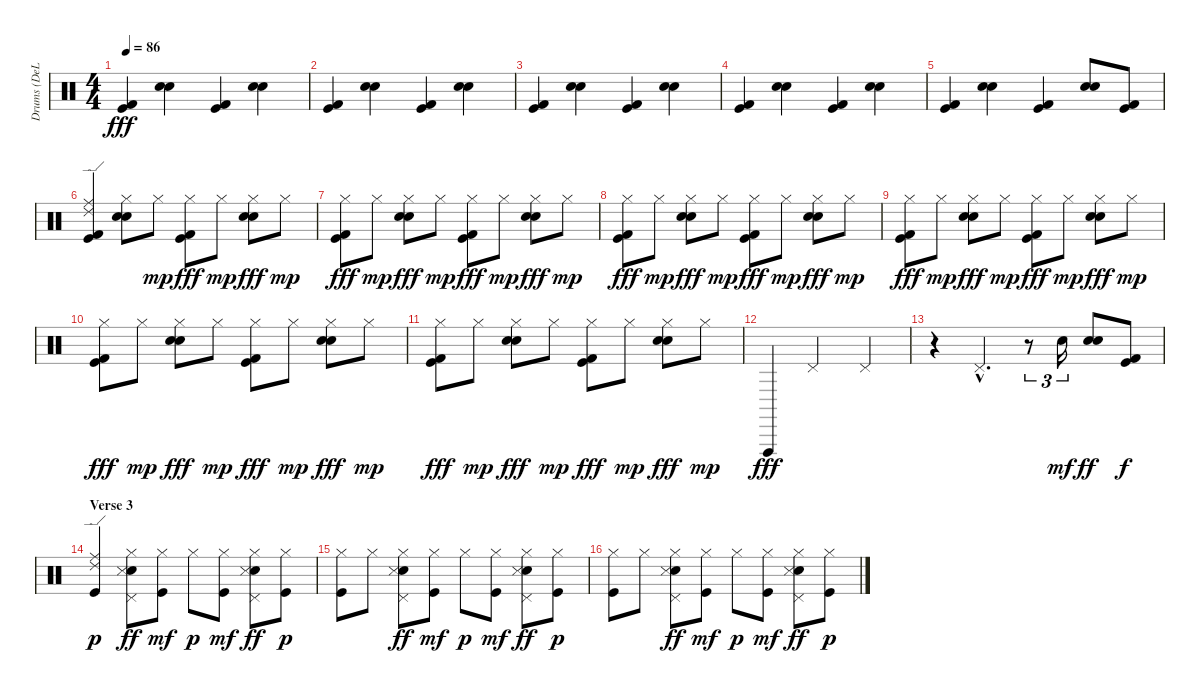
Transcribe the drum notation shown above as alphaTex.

\track ("Drums (DeLorenzo)" "Drums (DeL") {instrument percussion}
\staff {score}
\articulation defaults
\ts (4 4)
\tempo 86
\clef neutral
\ks c
("Kick (hit)" "Kick (hit) 2").4{dy fff} ("Snare (hit) 2" "Electric Snare (hit)").4 ("Kick (hit)" "Kick (hit) 2").4 ("Snare (hit) 2" "Electric Snare (hit)").4 |
("Kick (hit)" "Kick (hit) 2").4 ("Snare (hit) 2" "Electric Snare (hit)").4 ("Kick (hit)" "Kick (hit) 2").4 ("Snare (hit) 2" "Electric Snare (hit)").4 |
("Kick (hit)" "Kick (hit) 2").4 ("Snare (hit) 2" "Electric Snare (hit)").4 ("Kick (hit)" "Kick (hit) 2").4 ("Snare (hit) 2" "Electric Snare (hit)").4 |
("Kick (hit)" "Kick (hit) 2").4 ("Snare (hit) 2" "Electric Snare (hit)").4 ("Kick (hit)" "Kick (hit) 2").4 ("Snare (hit) 2" "Electric Snare (hit)").4 |
("Kick (hit)" "Kick (hit) 2").4 ("Snare (hit) 2" "Electric Snare (hit)").4 ("Kick (hit)" "Kick (hit) 2").4 ("Snare (hit) 2" "Electric Snare (hit)").8{bd 120} ("Kick (hit)" "Kick (hit) 2").8 |
("Ride (middle)" "Ride (edge) 2" "Kick (hit)" "Kick (hit) 2").4 ("Hi-Hat (closed)" "Snare (hit) 2" "Electric Snare (hit)").8 "Hi-Hat (closed)".8{dy mp} ("Hi-Hat (closed)" "Kick (hit)" "Kick (hit) 2").8{dy fff} "Hi-Hat (closed)".8{dy mp} ("Hi-Hat (closed)" "Snare (hit) 2" "Electric Snare (hit)").8{dy fff} "Hi-Hat (closed)".8{dy mp} |
("Hi-Hat (closed)" "Kick (hit)" "Kick (hit) 2").8{dy fff} "Hi-Hat (closed)".8{dy mp} ("Hi-Hat (closed)" "Snare (hit) 2" "Electric Snare (hit)").8{dy fff} "Hi-Hat (closed)".8{dy mp} ("Hi-Hat (closed)" "Kick (hit)" "Kick (hit) 2").8{dy fff} "Hi-Hat (closed)".8{dy mp} ("Hi-Hat (closed)" "Snare (hit) 2" "Electric Snare (hit)").8{dy fff} "Hi-Hat (closed)".8{dy mp} |
("Hi-Hat (closed)" "Kick (hit)" "Kick (hit) 2").8{dy fff} "Hi-Hat (closed)".8{dy mp} ("Hi-Hat (closed)" "Snare (hit) 2" "Electric Snare (hit)").8{dy fff} "Hi-Hat (closed)".8{dy mp} ("Hi-Hat (closed)" "Kick (hit)" "Kick (hit) 2").8{dy fff} "Hi-Hat (closed)".8{dy mp} ("Hi-Hat (closed)" "Snare (hit) 2" "Electric Snare (hit)").8{dy fff} "Hi-Hat (closed)".8{dy mp} |
("Hi-Hat (closed)" "Kick (hit)" "Kick (hit) 2").8{dy fff} "Hi-Hat (closed)".8{dy mp} ("Hi-Hat (closed)" "Snare (hit) 2" "Electric Snare (hit)").8{dy fff} "Hi-Hat (closed)".8{dy mp} ("Hi-Hat (closed)" "Kick (hit)" "Kick (hit) 2").8{dy fff} "Hi-Hat (closed)".8{dy mp} ("Hi-Hat (closed)" "Snare (hit) 2" "Electric Snare (hit)").8{dy fff} "Hi-Hat (closed)".8{dy mp} |
("Hi-Hat (closed)" "Kick (hit)" "Kick (hit) 2").8{dy fff} "Hi-Hat (closed)".8{dy mp} ("Hi-Hat (closed)" "Snare (hit) 2" "Electric Snare (hit)").8{dy fff} "Hi-Hat (closed)".8{dy mp} ("Hi-Hat (closed)" "Kick (hit)" "Kick (hit) 2").8{dy fff} "Hi-Hat (closed)".8{dy mp} ("Hi-Hat (closed)" "Snare (hit) 2" "Electric Snare (hit)").8{dy fff} "Hi-Hat (closed)".8{dy mp} |
("Hi-Hat (closed)" "Kick (hit)" "Kick (hit) 2").8{dy fff} "Hi-Hat (closed)".8{dy mp} ("Hi-Hat (closed)" "Snare (hit) 2" "Electric Snare (hit)").8{dy fff} "Hi-Hat (closed)".8{dy mp} ("Hi-Hat (closed)" "Kick (hit)" "Kick (hit) 2").8{dy fff} "Hi-Hat (closed)".8{dy mp} ("Hi-Hat (closed)" "Snare (hit) 2" "Electric Snare (hit)").8{dy fff} "Hi-Hat (closed)".8{dy mp} |
"Vibraslap (hit)".4{dy fff} "Pedal Hi-Hat (hit)".2 "Pedal Hi-Hat (hit)".4 |
r.4 "Pedal Hi-Hat (hit)"{hac}.4{d} r.8{tu (3 2)} "Snare (hit) 2".16{tu (3 2) dy mf} ("Snare (hit) 2" "Electric Snare (hit)").8{dy ff} ("Kick (hit)" "Kick (hit) 2").8{dy f} |
\section ("" "Verse 3")
("Ride (middle)" "Ride (edge) 2" "Kick (hit)").4{dy p} ("Hi-Hat (closed)" "Pedal Hi-Hat (hit)" "Electric Snare (hit)" "Snare (side stick) 3").8{dy ff} ("Hi-Hat (closed)" "Kick (hit)").8{dy mf} "Hi-Hat (closed)".8{dy p} ("Hi-Hat (closed)" "Kick (hit)").8{dy mf} ("Hi-Hat (closed)" "Pedal Hi-Hat (hit)" "Electric Snare (hit)" "Snare (side stick) 3").8{dy ff} ("Hi-Hat (closed)" "Kick (hit)").8{dy p} |
("Hi-Hat (closed)" "Kick (hit)").8 "Hi-Hat (closed)".8 ("Hi-Hat (closed)" "Pedal Hi-Hat (hit)" "Electric Snare (hit)" "Snare (side stick) 3").8{dy ff} ("Hi-Hat (closed)" "Kick (hit)").8{dy mf} "Hi-Hat (closed)".8{dy p} ("Hi-Hat (closed)" "Kick (hit)").8{dy mf} ("Hi-Hat (closed)" "Pedal Hi-Hat (hit)" "Electric Snare (hit)" "Snare (side stick) 3").8{dy ff} ("Hi-Hat (closed)" "Kick (hit)").8{dy p} |
("Hi-Hat (closed)" "Kick (hit)").8 "Hi-Hat (closed)".8 ("Hi-Hat (closed)" "Pedal Hi-Hat (hit)" "Electric Snare (hit)" "Snare (side stick) 3").8{dy ff} ("Hi-Hat (closed)" "Kick (hit)").8{dy mf} "Hi-Hat (closed)".8{dy p} ("Hi-Hat (closed)" "Kick (hit)").8{dy mf} ("Hi-Hat (closed)" "Pedal Hi-Hat (hit)" "Electric Snare (hit)" "Snare (side stick) 3").8{dy ff} ("Hi-Hat (closed)" "Kick (hit)").8{dy p}
